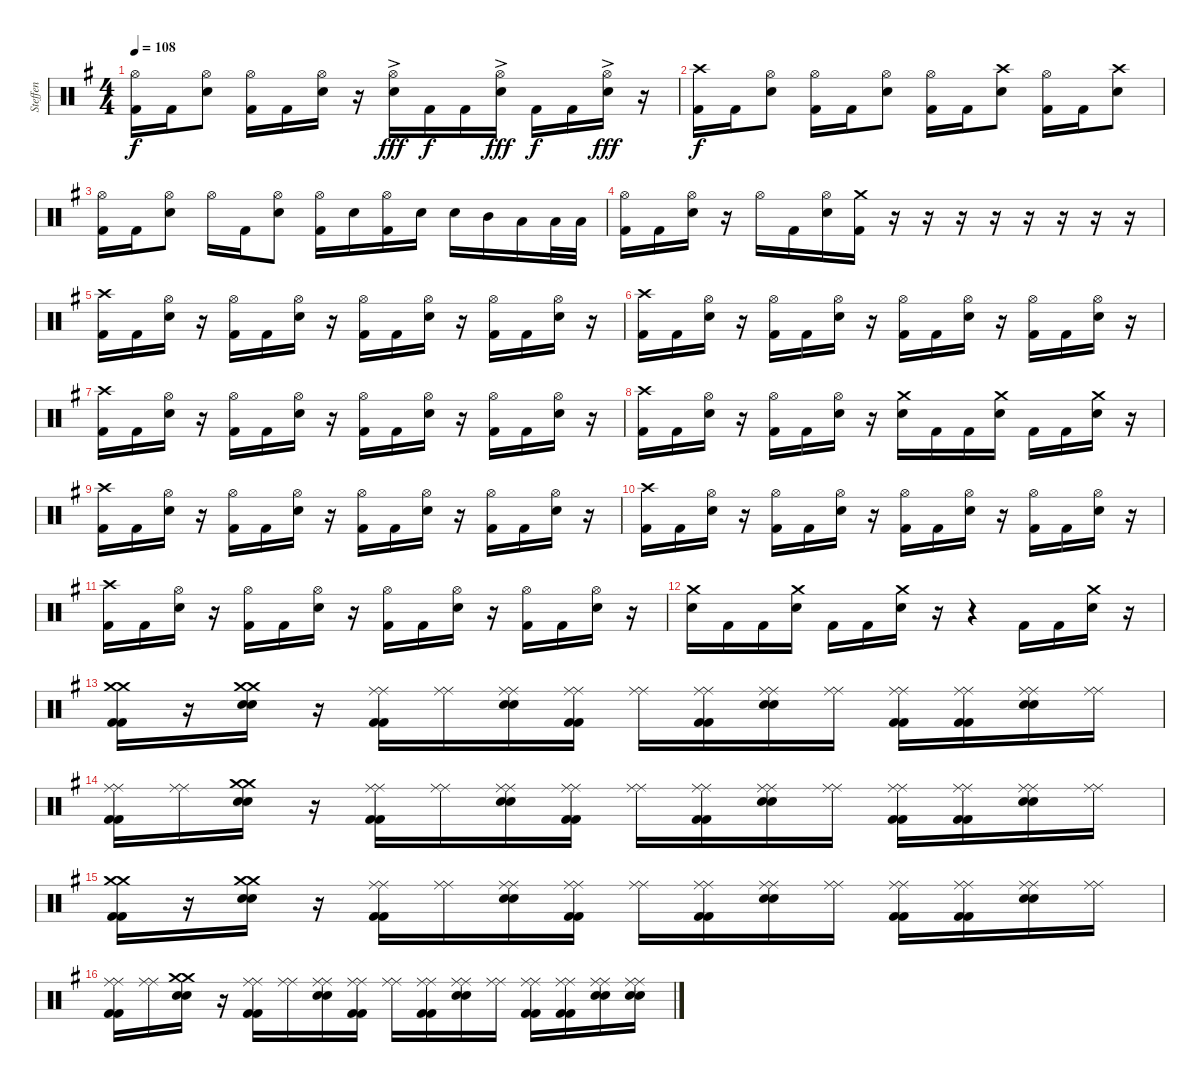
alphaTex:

\track ("Steffen" "Steffen") {instrument percussion}
\staff {score}
\articulation defaults
\ts (4 4)
\tempo 108
\clef neutral
\ks g
("Hi-Hat (open)" "Kick (hit) 2").16{dy f} "Kick (hit) 2".16 ("Hi-Hat (open)" "Electric Snare (hit)").8 ("Hi-Hat (open)" "Kick (hit) 2").16 "Kick (hit) 2".16 ("Hi-Hat (open)" "Electric Snare (hit)").16 r.16 ("Hi-Hat (open)"{ac} "Electric Snare (hit)").16{dy fff} "Kick (hit) 2".16{dy f} "Kick (hit) 2".16 ("Hi-Hat (open)"{ac} "Electric Snare (hit)").16{dy fff} "Kick (hit) 2".16{dy f} "Kick (hit) 2".16 ("Hi-Hat (open)"{ac} "Electric Snare (hit)").16{dy fff} r.16 |
("Crash high (hit)" "Kick (hit) 2").16{dy f} "Kick (hit) 2".16 ("Hi-Hat (open)" "Electric Snare (hit)").8 ("Hi-Hat (open)" "Kick (hit) 2").16 "Kick (hit) 2".16 ("Hi-Hat (open)" "Electric Snare (hit)").8 ("Hi-Hat (open)" "Kick (hit) 2").16 "Kick (hit) 2".16 ("Crash high (hit)" "Electric Snare (hit)").8 ("Hi-Hat (open)" "Kick (hit) 2").16 "Kick (hit) 2".16 ("Crash high (hit)" "Electric Snare (hit)").8 |
("Hi-Hat (open)" "Kick (hit) 2").16 "Kick (hit) 2".16 ("Hi-Hat (open)" "Electric Snare (hit)").8 "Hi-Hat (open)".16 "Kick (hit) 2".16 ("Hi-Hat (open)" "Electric Snare (hit)").8 ("Hi-Hat (open)" "Kick (hit) 2").16 "Electric Snare (hit)".16 ("Hi-Hat (open)" "Kick (hit) 2").16 "Electric Snare (hit)".16 "Electric Snare (hit)".16 "Mid Tom (hit)".16 "Low Tom (hit)".16 "Low Tom (hit)".32 "Low Tom (hit)".32 |
("Hi-Hat (open)" "Kick (hit) 2").16 "Kick (hit) 2".16 ("Hi-Hat (open)" "Electric Snare (hit)").16 r.16 "Hi-Hat (open)".16 "Kick (hit) 2".16 ("Hi-Hat (open)" "Electric Snare (hit)").16 ("Crash medium (hit)" "Kick (hit) 2").16 r.16 r.16 r.16 r.16 r.16 r.16 r.16 r.16 |
("Crash high (hit)" "Kick (hit) 2").16 "Kick (hit) 2".16 ("Hi-Hat (open)" "Electric Snare (hit)").16 r.16 ("Hi-Hat (open)" "Kick (hit) 2").16 "Kick (hit) 2".16 ("Hi-Hat (open)" "Electric Snare (hit)").16 r.16 ("Hi-Hat (open)" "Kick (hit) 2").16 "Kick (hit) 2".16 ("Hi-Hat (open)" "Electric Snare (hit)").16 r.16 ("Hi-Hat (open)" "Kick (hit) 2").16 "Kick (hit) 2".16 ("Hi-Hat (open)" "Electric Snare (hit)").16 r.16 |
("Crash high (hit)" "Kick (hit) 2").16 "Kick (hit) 2".16 ("Hi-Hat (open)" "Electric Snare (hit)").16 r.16 ("Hi-Hat (open)" "Kick (hit) 2").16 "Kick (hit) 2".16 ("Hi-Hat (open)" "Electric Snare (hit)").16 r.16 ("Hi-Hat (open)" "Kick (hit) 2").16 "Kick (hit) 2".16 ("Hi-Hat (open)" "Electric Snare (hit)").16 r.16 ("Hi-Hat (open)" "Kick (hit) 2").16 "Kick (hit) 2".16 ("Hi-Hat (open)" "Electric Snare (hit)").16 r.16 |
("Crash high (hit)" "Kick (hit) 2").16 "Kick (hit) 2".16 ("Hi-Hat (open)" "Electric Snare (hit)").16 r.16 ("Hi-Hat (open)" "Kick (hit) 2").16 "Kick (hit) 2".16 ("Hi-Hat (open)" "Electric Snare (hit)").16 r.16 ("Hi-Hat (open)" "Kick (hit) 2").16 "Kick (hit) 2".16 ("Hi-Hat (open)" "Electric Snare (hit)").16 r.16 ("Hi-Hat (open)" "Kick (hit) 2").16 "Kick (hit) 2".16 ("Hi-Hat (open)" "Electric Snare (hit)").16 r.16 |
("Crash high (hit)" "Kick (hit) 2").16 "Kick (hit) 2".16 ("Hi-Hat (open)" "Electric Snare (hit)").16 r.16 ("Hi-Hat (open)" "Kick (hit) 2").16 "Kick (hit) 2".16 ("Hi-Hat (open)" "Electric Snare (hit)").16 r.16 ("Crash medium (hit)" "Electric Snare (hit)").16 "Kick (hit) 2".16 "Kick (hit) 2".16 ("Crash medium (hit)" "Electric Snare (hit)").16 "Kick (hit) 2".16 "Kick (hit) 2".16 ("Crash medium (hit)" "Electric Snare (hit)").16 r.16 |
("Crash high (hit)" "Kick (hit) 2").16 "Kick (hit) 2".16 ("Hi-Hat (open)" "Electric Snare (hit)").16 r.16 ("Hi-Hat (open)" "Kick (hit) 2").16 "Kick (hit) 2".16 ("Hi-Hat (open)" "Electric Snare (hit)").16 r.16 ("Hi-Hat (open)" "Kick (hit) 2").16 "Kick (hit) 2".16 ("Hi-Hat (open)" "Electric Snare (hit)").16 r.16 ("Hi-Hat (open)" "Kick (hit) 2").16 "Kick (hit) 2".16 ("Hi-Hat (open)" "Electric Snare (hit)").16 r.16 |
("Crash high (hit)" "Kick (hit) 2").16 "Kick (hit) 2".16 ("Hi-Hat (open)" "Electric Snare (hit)").16 r.16 ("Hi-Hat (open)" "Kick (hit) 2").16 "Kick (hit) 2".16 ("Hi-Hat (open)" "Electric Snare (hit)").16 r.16 ("Hi-Hat (open)" "Kick (hit) 2").16 "Kick (hit) 2".16 ("Hi-Hat (open)" "Electric Snare (hit)").16 r.16 ("Hi-Hat (open)" "Kick (hit) 2").16 "Kick (hit) 2".16 ("Hi-Hat (open)" "Electric Snare (hit)").16 r.16 |
("Crash high (hit)" "Kick (hit) 2").16 "Kick (hit) 2".16 ("Hi-Hat (open)" "Electric Snare (hit)").16 r.16 ("Hi-Hat (open)" "Kick (hit) 2").16 "Kick (hit) 2".16 ("Hi-Hat (open)" "Electric Snare (hit)").16 r.16 ("Hi-Hat (open)" "Kick (hit) 2").16 "Kick (hit) 2".16 ("Hi-Hat (open)" "Electric Snare (hit)").16 r.16 ("Hi-Hat (open)" "Kick (hit) 2").16 "Kick (hit) 2".16 ("Hi-Hat (open)" "Electric Snare (hit)").16 r.16 |
("Crash medium (hit)" "Electric Snare (hit)").16 "Kick (hit) 2".16 "Kick (hit) 2".16 ("Crash medium (hit)" "Electric Snare (hit)").16 "Kick (hit) 2".16 "Kick (hit) 2".16 ("Crash medium (hit)" "Electric Snare (hit)").16 r.16 r.4 "Kick (hit) 2".16 "Kick (hit) 2".16 ("Crash medium (hit)" "Electric Snare (hit)").16 r.16 |
("Kick (hit) 2" "Kick (hit) 2" "Crash medium (hit)" "Crash medium (hit)").16 r.16 ("Snare (hit) 2" "Snare (hit) 2" "Crash medium (hit)" "Crash medium (hit)").16 r.16 ("Kick (hit) 2" "Kick (hit) 2" "Ride (middle)" "Ride (middle)").16 ("Ride (middle)" "Ride (middle)").16 ("Snare (hit) 2" "Snare (hit) 2" "Ride (middle)" "Ride (middle)").16 ("Kick (hit) 2" "Kick (hit) 2" "Ride (middle)" "Ride (middle)").16 ("Ride (middle)" "Ride (middle)").16 ("Kick (hit) 2" "Kick (hit) 2" "Ride (middle)" "Ride (middle)").16 ("Snare (hit) 2" "Snare (hit) 2" "Ride (middle)" "Ride (middle)").16 ("Ride (middle)" "Ride (middle)").16 ("Kick (hit) 2" "Kick (hit) 2" "Ride (middle)" "Ride (middle)").16 ("Kick (hit) 2" "Kick (hit) 2" "Ride (middle)" "Ride (middle)").16 ("Snare (hit) 2" "Snare (hit) 2" "Ride (middle)" "Ride (middle)").16 ("Ride (middle)" "Ride (middle)").16 |
("Kick (hit) 2" "Kick (hit) 2" "Ride (middle)" "Ride (middle)").16 ("Ride (middle)" "Ride (middle)").16 ("Snare (hit) 2" "Snare (hit) 2" "Crash medium (hit)" "Crash medium (hit)").16 r.16 ("Kick (hit) 2" "Kick (hit) 2" "Ride (middle)" "Ride (middle)").16 ("Ride (middle)" "Ride (middle)").16 ("Snare (hit) 2" "Snare (hit) 2" "Ride (middle)" "Ride (middle)").16 ("Kick (hit) 2" "Kick (hit) 2" "Ride (middle)" "Ride (middle)").16 ("Ride (middle)" "Ride (middle)").16 ("Kick (hit) 2" "Kick (hit) 2" "Ride (middle)" "Ride (middle)").16 ("Snare (hit) 2" "Snare (hit) 2" "Ride (middle)" "Ride (middle)").16 ("Ride (middle)" "Ride (middle)").16 ("Kick (hit) 2" "Kick (hit) 2" "Ride (middle)" "Ride (middle)").16 ("Kick (hit) 2" "Kick (hit) 2" "Ride (middle)" "Ride (middle)").16 ("Snare (hit) 2" "Snare (hit) 2" "Ride (middle)" "Ride (middle)").16 ("Ride (middle)" "Ride (middle)").16 |
("Kick (hit) 2" "Kick (hit) 2" "Crash medium (hit)" "Crash medium (hit)").16 r.16 ("Snare (hit) 2" "Snare (hit) 2" "Crash medium (hit)" "Crash medium (hit)").16 r.16 ("Kick (hit) 2" "Kick (hit) 2" "Ride (middle)" "Ride (middle)").16 ("Ride (middle)" "Ride (middle)").16 ("Snare (hit) 2" "Snare (hit) 2" "Ride (middle)" "Ride (middle)").16 ("Kick (hit) 2" "Kick (hit) 2" "Ride (middle)" "Ride (middle)").16 ("Ride (middle)" "Ride (middle)").16 ("Kick (hit) 2" "Kick (hit) 2" "Ride (middle)" "Ride (middle)").16 ("Snare (hit) 2" "Snare (hit) 2" "Ride (middle)" "Ride (middle)").16 ("Ride (middle)" "Ride (middle)").16 ("Kick (hit) 2" "Kick (hit) 2" "Ride (middle)" "Ride (middle)").16 ("Kick (hit) 2" "Kick (hit) 2" "Ride (middle)" "Ride (middle)").16 ("Snare (hit) 2" "Snare (hit) 2" "Ride (middle)" "Ride (middle)").16 ("Ride (middle)" "Ride (middle)").16 |
("Kick (hit) 2" "Kick (hit) 2" "Ride (middle)" "Ride (middle)").16 ("Ride (middle)" "Ride (middle)").16 ("Snare (hit) 2" "Snare (hit) 2" "Crash medium (hit)" "Crash medium (hit)").16 r.16 ("Kick (hit) 2" "Kick (hit) 2" "Ride (middle)" "Ride (middle)").16 ("Ride (middle)" "Ride (middle)").16 ("Snare (hit) 2" "Snare (hit) 2" "Ride (middle)" "Ride (middle)").16 ("Kick (hit) 2" "Kick (hit) 2" "Ride (middle)" "Ride (middle)").16 ("Ride (middle)" "Ride (middle)").16 ("Kick (hit) 2" "Kick (hit) 2" "Ride (middle)" "Ride (middle)").16 ("Snare (hit) 2" "Snare (hit) 2" "Ride (middle)" "Ride (middle)").16 ("Ride (middle)" "Ride (middle)").16 ("Kick (hit) 2" "Kick (hit) 2" "Ride (middle)" "Ride (middle)").16 ("Kick (hit) 2" "Kick (hit) 2" "Ride (middle)" "Ride (middle)").16 ("Snare (hit) 2" "Snare (hit) 2" "Ride (middle)" "Ride (middle)").16 ("Snare (hit) 2" "Snare (hit) 2" "Ride (middle)" "Ride (middle)").16
